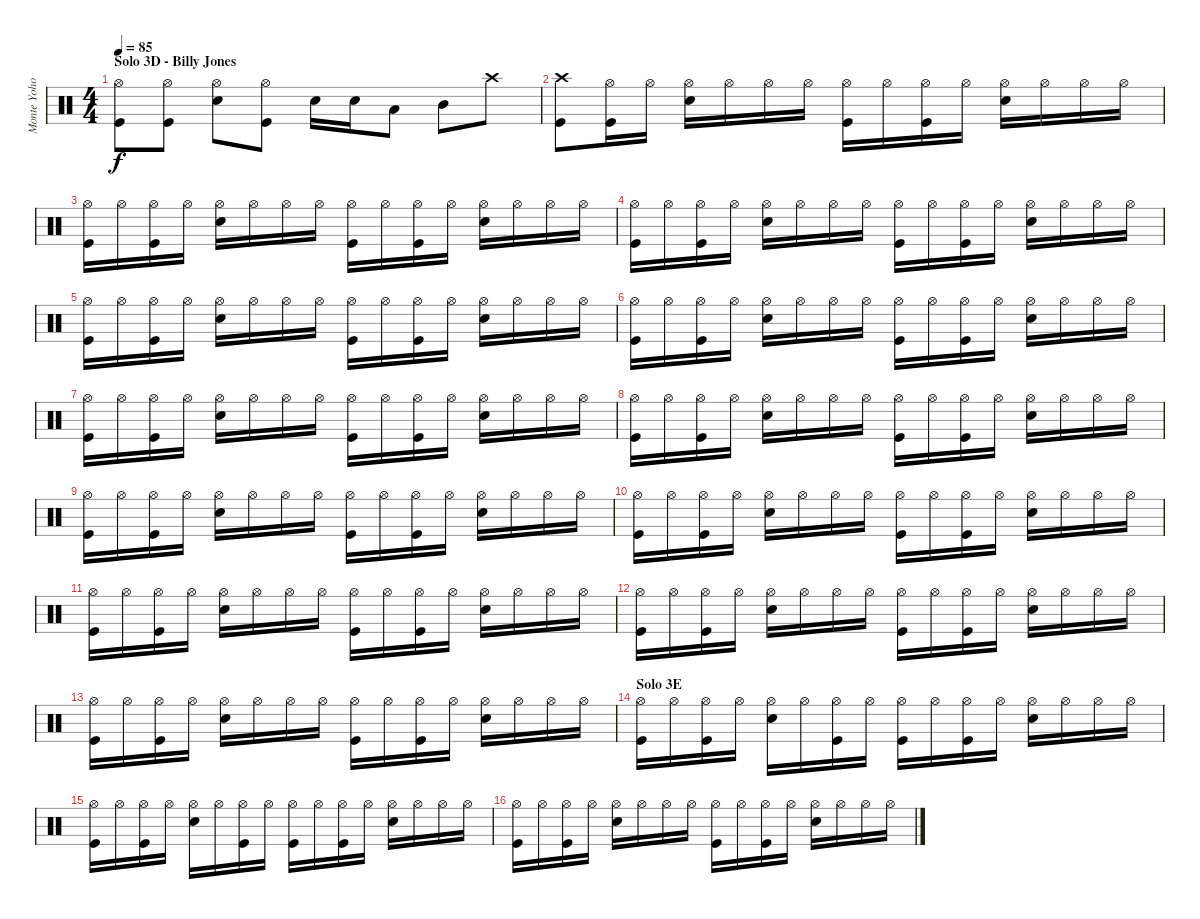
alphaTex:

\track ("Monte Yoho - Drums" "Monte Yoho") {instrument percussion}
\staff {score}
\articulation defaults
\ts (4 4)
\section ("" "Solo 3D - Billy Jones")
\tempo 85
\clef neutral
\ks c
("Hi-Hat (open)" "Kick (hit)").8{dy f} ("Hi-Hat (open)" "Kick (hit)").8 ("Hi-Hat (open)" "Snare (hit) 2").8 ("Hi-Hat (open)" "Kick (hit)").8 "Snare (hit) 2".16 "Snare (hit) 2".16 "Low Tom (hit)".8 "Mid Tom (hit)".8 "Crash high (hit)".8 |
("Crash high (hit)" "Kick (hit)").8 ("Hi-Hat (open)" "Kick (hit)").16 "Hi-Hat (open)".16 ("Hi-Hat (open)" "Snare (hit) 2").16 "Hi-Hat (open)".16 "Hi-Hat (open)".16 "Hi-Hat (open)".16 ("Hi-Hat (open)" "Kick (hit)").16 "Hi-Hat (open)".16 ("Hi-Hat (open)" "Kick (hit)").16 "Hi-Hat (open)".16 ("Hi-Hat (open)" "Snare (hit) 2").16 "Hi-Hat (open)".16 "Hi-Hat (open)".16 "Hi-Hat (open)".16 |
("Hi-Hat (open)" "Kick (hit)").16 "Hi-Hat (open)".16 ("Hi-Hat (open)" "Kick (hit)").16 "Hi-Hat (open)".16 ("Hi-Hat (open)" "Snare (hit) 2").16 "Hi-Hat (open)".16 "Hi-Hat (open)".16 "Hi-Hat (open)".16 ("Hi-Hat (open)" "Kick (hit)").16 "Hi-Hat (open)".16 ("Hi-Hat (open)" "Kick (hit)").16 "Hi-Hat (open)".16 ("Hi-Hat (open)" "Snare (hit) 2").16 "Hi-Hat (open)".16 "Hi-Hat (open)".16 "Hi-Hat (open)".16 |
("Hi-Hat (open)" "Kick (hit)").16 "Hi-Hat (open)".16 ("Hi-Hat (open)" "Kick (hit)").16 "Hi-Hat (open)".16 ("Hi-Hat (open)" "Snare (hit) 2").16 "Hi-Hat (open)".16 "Hi-Hat (open)".16 "Hi-Hat (open)".16 ("Hi-Hat (open)" "Kick (hit)").16 "Hi-Hat (open)".16 ("Hi-Hat (open)" "Kick (hit)").16 "Hi-Hat (open)".16 ("Hi-Hat (open)" "Snare (hit) 2").16 "Hi-Hat (open)".16 "Hi-Hat (open)".16 "Hi-Hat (open)".16 |
("Hi-Hat (open)" "Kick (hit)").16 "Hi-Hat (open)".16 ("Hi-Hat (open)" "Kick (hit)").16 "Hi-Hat (open)".16 ("Hi-Hat (open)" "Snare (hit) 2").16 "Hi-Hat (open)".16 "Hi-Hat (open)".16 "Hi-Hat (open)".16 ("Hi-Hat (open)" "Kick (hit)").16 "Hi-Hat (open)".16 ("Hi-Hat (open)" "Kick (hit)").16 "Hi-Hat (open)".16 ("Hi-Hat (open)" "Snare (hit) 2").16 "Hi-Hat (open)".16 "Hi-Hat (open)".16 "Hi-Hat (open)".16 |
("Hi-Hat (open)" "Kick (hit)").16 "Hi-Hat (open)".16 ("Hi-Hat (open)" "Kick (hit)").16 "Hi-Hat (open)".16 ("Hi-Hat (open)" "Snare (hit) 2").16 "Hi-Hat (open)".16 "Hi-Hat (open)".16 "Hi-Hat (open)".16 ("Hi-Hat (open)" "Kick (hit)").16 "Hi-Hat (open)".16 ("Hi-Hat (open)" "Kick (hit)").16 "Hi-Hat (open)".16 ("Hi-Hat (open)" "Snare (hit) 2").16 "Hi-Hat (open)".16 "Hi-Hat (open)".16 "Hi-Hat (open)".16 |
("Hi-Hat (open)" "Kick (hit)").16 "Hi-Hat (open)".16 ("Hi-Hat (open)" "Kick (hit)").16 "Hi-Hat (open)".16 ("Hi-Hat (open)" "Snare (hit) 2").16 "Hi-Hat (open)".16 "Hi-Hat (open)".16 "Hi-Hat (open)".16 ("Hi-Hat (open)" "Kick (hit)").16 "Hi-Hat (open)".16 ("Hi-Hat (open)" "Kick (hit)").16 "Hi-Hat (open)".16 ("Hi-Hat (open)" "Snare (hit) 2").16 "Hi-Hat (open)".16 "Hi-Hat (open)".16 "Hi-Hat (open)".16 |
("Hi-Hat (open)" "Kick (hit)").16 "Hi-Hat (open)".16 ("Hi-Hat (open)" "Kick (hit)").16 "Hi-Hat (open)".16 ("Hi-Hat (open)" "Snare (hit) 2").16 "Hi-Hat (open)".16 "Hi-Hat (open)".16 "Hi-Hat (open)".16 ("Hi-Hat (open)" "Kick (hit)").16 "Hi-Hat (open)".16 ("Hi-Hat (open)" "Kick (hit)").16 "Hi-Hat (open)".16 ("Hi-Hat (open)" "Snare (hit) 2").16 "Hi-Hat (open)".16 "Hi-Hat (open)".16 "Hi-Hat (open)".16 |
("Hi-Hat (open)" "Kick (hit)").16 "Hi-Hat (open)".16 ("Hi-Hat (open)" "Kick (hit)").16 "Hi-Hat (open)".16 ("Hi-Hat (open)" "Snare (hit) 2").16 "Hi-Hat (open)".16 "Hi-Hat (open)".16 "Hi-Hat (open)".16 ("Hi-Hat (open)" "Kick (hit)").16 "Hi-Hat (open)".16 ("Hi-Hat (open)" "Kick (hit)").16 "Hi-Hat (open)".16 ("Hi-Hat (open)" "Snare (hit) 2").16 "Hi-Hat (open)".16 "Hi-Hat (open)".16 "Hi-Hat (open)".16 |
("Hi-Hat (open)" "Kick (hit)").16 "Hi-Hat (open)".16 ("Hi-Hat (open)" "Kick (hit)").16 "Hi-Hat (open)".16 ("Hi-Hat (open)" "Snare (hit) 2").16 "Hi-Hat (open)".16 "Hi-Hat (open)".16 "Hi-Hat (open)".16 ("Hi-Hat (open)" "Kick (hit)").16 "Hi-Hat (open)".16 ("Hi-Hat (open)" "Kick (hit)").16 "Hi-Hat (open)".16 ("Hi-Hat (open)" "Snare (hit) 2").16 "Hi-Hat (open)".16 "Hi-Hat (open)".16 "Hi-Hat (open)".16 |
("Hi-Hat (open)" "Kick (hit)").16 "Hi-Hat (open)".16 ("Hi-Hat (open)" "Kick (hit)").16 "Hi-Hat (open)".16 ("Hi-Hat (open)" "Snare (hit) 2").16 "Hi-Hat (open)".16 "Hi-Hat (open)".16 "Hi-Hat (open)".16 ("Hi-Hat (open)" "Kick (hit)").16 "Hi-Hat (open)".16 ("Hi-Hat (open)" "Kick (hit)").16 "Hi-Hat (open)".16 ("Hi-Hat (open)" "Snare (hit) 2").16 "Hi-Hat (open)".16 "Hi-Hat (open)".16 "Hi-Hat (open)".16 |
("Hi-Hat (open)" "Kick (hit)").16 "Hi-Hat (open)".16 ("Hi-Hat (open)" "Kick (hit)").16 "Hi-Hat (open)".16 ("Hi-Hat (open)" "Snare (hit) 2").16 "Hi-Hat (open)".16 "Hi-Hat (open)".16 "Hi-Hat (open)".16 ("Hi-Hat (open)" "Kick (hit)").16 "Hi-Hat (open)".16 ("Hi-Hat (open)" "Kick (hit)").16 "Hi-Hat (open)".16 ("Hi-Hat (open)" "Snare (hit) 2").16 "Hi-Hat (open)".16 "Hi-Hat (open)".16 "Hi-Hat (open)".16 |
("Hi-Hat (open)" "Kick (hit)").16 "Hi-Hat (open)".16 ("Hi-Hat (open)" "Kick (hit)").16 "Hi-Hat (open)".16 ("Hi-Hat (open)" "Snare (hit) 2").16 "Hi-Hat (open)".16 "Hi-Hat (open)".16 "Hi-Hat (open)".16 ("Hi-Hat (open)" "Kick (hit)").16 "Hi-Hat (open)".16 ("Hi-Hat (open)" "Kick (hit)").16 "Hi-Hat (open)".16 ("Hi-Hat (open)" "Snare (hit) 2").16 "Hi-Hat (open)".16 "Hi-Hat (open)".16 "Hi-Hat (open)".16 |
\section ("" "Solo 3E")
("Hi-Hat (open)" "Kick (hit)").16 "Hi-Hat (open)".16 ("Hi-Hat (open)" "Kick (hit)").16 "Hi-Hat (open)".16 ("Hi-Hat (open)" "Snare (hit) 2").16 "Hi-Hat (open)".16 ("Hi-Hat (open)" "Kick (hit)").16 "Hi-Hat (open)".16 ("Hi-Hat (open)" "Kick (hit)").16 "Hi-Hat (open)".16 ("Hi-Hat (open)" "Kick (hit)").16 "Hi-Hat (open)".16 ("Hi-Hat (open)" "Snare (hit) 2").16 "Hi-Hat (open)".16 "Hi-Hat (open)".16 "Hi-Hat (open)".16 |
("Hi-Hat (open)" "Kick (hit)").16 "Hi-Hat (open)".16 ("Hi-Hat (open)" "Kick (hit)").16 "Hi-Hat (open)".16 ("Hi-Hat (open)" "Snare (hit) 2").16 "Hi-Hat (open)".16 ("Hi-Hat (open)" "Kick (hit)").16 "Hi-Hat (open)".16 ("Hi-Hat (open)" "Kick (hit)").16 "Hi-Hat (open)".16 ("Hi-Hat (open)" "Kick (hit)").16 "Hi-Hat (open)".16 ("Hi-Hat (open)" "Snare (hit) 2").16 "Hi-Hat (open)".16 "Hi-Hat (open)".16 "Hi-Hat (open)".16 |
("Hi-Hat (open)" "Kick (hit)").16 "Hi-Hat (open)".16 ("Hi-Hat (open)" "Kick (hit)").16 "Hi-Hat (open)".16 ("Hi-Hat (open)" "Snare (hit) 2").16 "Hi-Hat (open)".16 "Hi-Hat (open)".16 "Hi-Hat (open)".16 ("Hi-Hat (open)" "Kick (hit)").16 "Hi-Hat (open)".16 ("Hi-Hat (open)" "Kick (hit)").16 "Hi-Hat (open)".16 ("Hi-Hat (open)" "Snare (hit) 2").16 "Hi-Hat (open)".16 "Hi-Hat (open)".16 "Hi-Hat (open)".16
